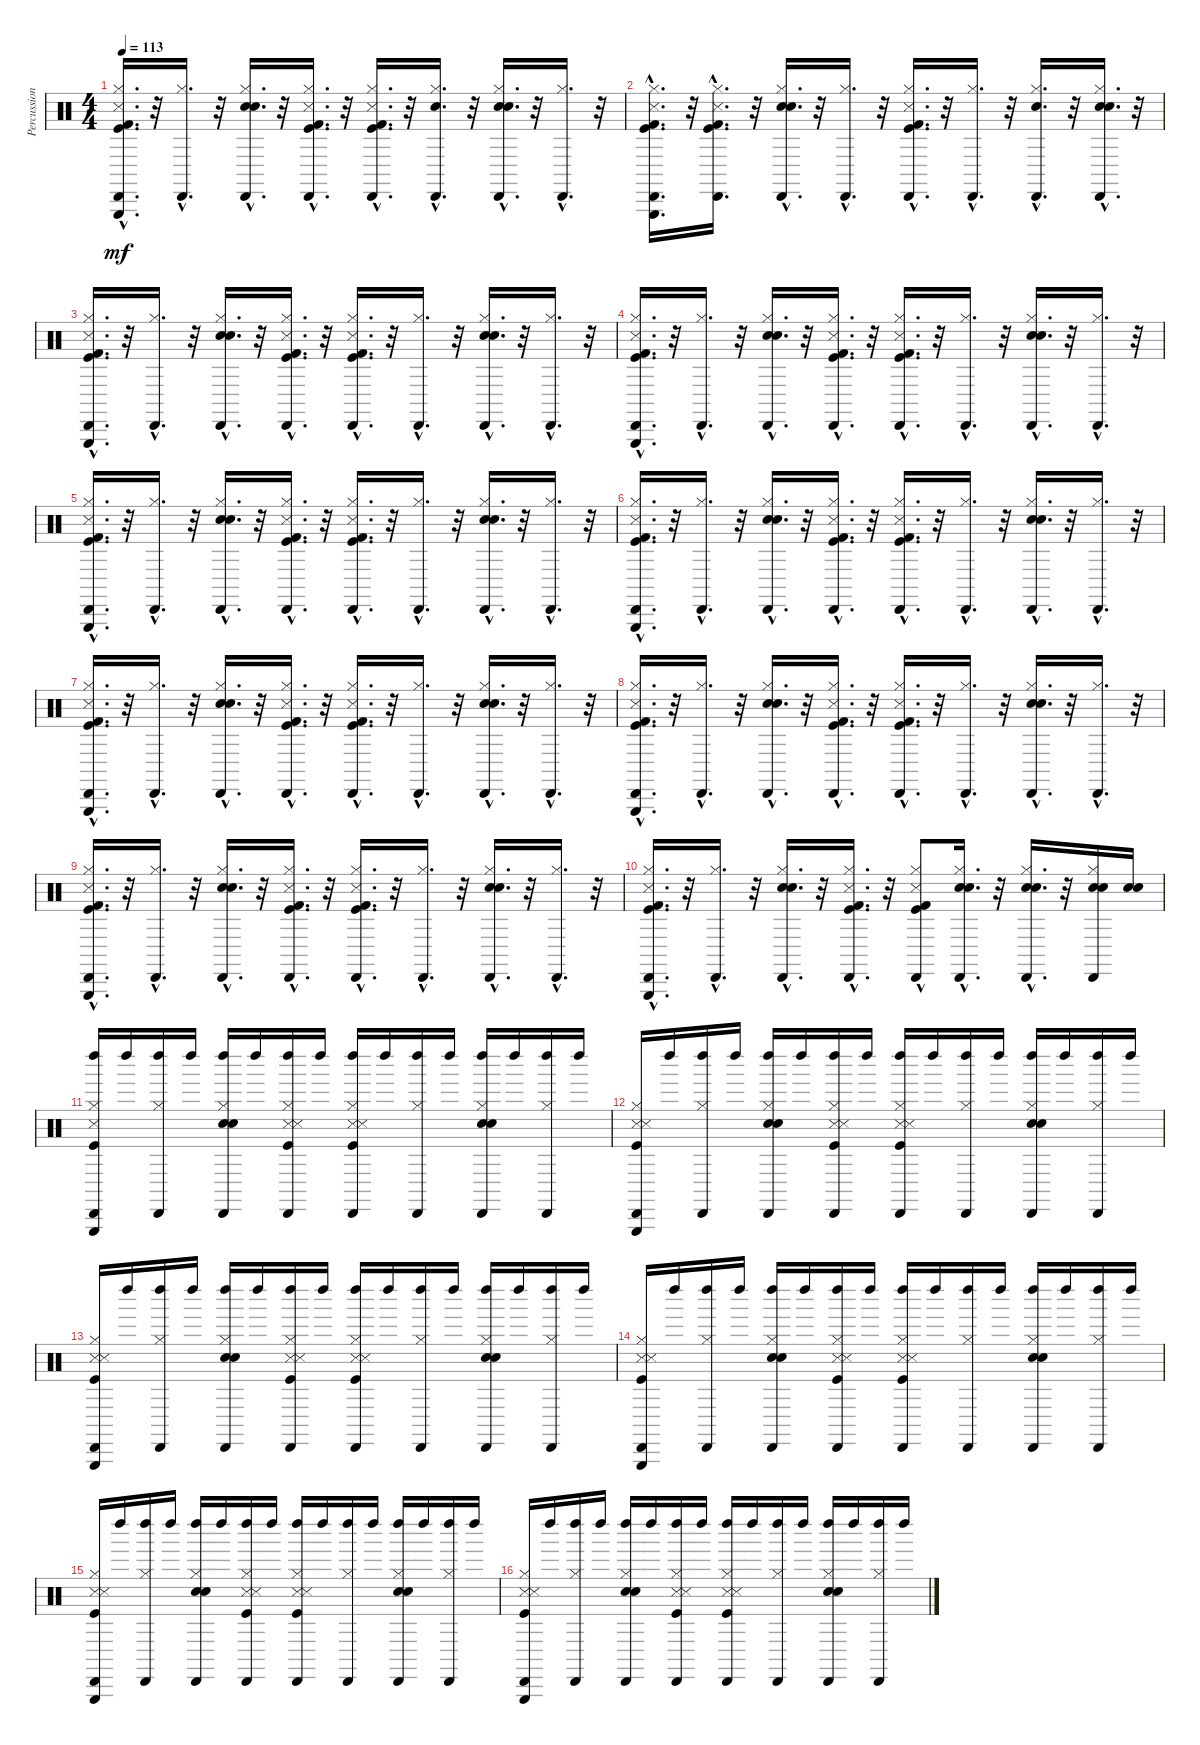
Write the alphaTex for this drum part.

\track ("Percussion" "Percussion") {instrument percussion}
\staff {score}
\articulation defaults
\ts (4 4)
\tempo 113
\clef neutral
\ks c
("Kick (hit) 2"{hac} "Cabasa (hit)"{hac} "Triangle (hit)"{hac} "Metronome (hit)"{hac} "Kick (hit)"{hac} "Hi-Hat (closed)"{hac}).16{d dy mf} r.32 ("Cabasa (hit)"{hac} "Hi-Hat (closed)"{hac}).16{d} r.32 ("Hand Clap (hit)"{hac} "Cabasa (hit)"{hac} "Electric Snare (hit)"{hac} "Hi-Hat (closed)"{hac}).16{d} r.32 ("Kick (hit) 2"{hac} "Cabasa (hit)"{hac} "Kick (hit)"{hac} "Metronome (hit)"{hac} "Hi-Hat (closed)"{hac}).16{d} r.32 ("Kick (hit) 2"{hac} "Cabasa (hit)"{hac} "Metronome (hit)"{hac} "Kick (hit)"{hac} "Hi-Hat (closed)"{hac}).16{d} r.32 ("Snare (hit)"{hac} "Cabasa (hit)"{hac} "Hi-Hat (closed)"{hac}).16{d} r.32 ("Cabasa (hit)"{hac} "Hand Clap (hit)"{hac} "Electric Snare (hit)"{hac} "Hi-Hat (closed)"{hac}).16{d} r.32 ("Cabasa (hit)"{hac} "Hi-Hat (closed)"{hac}).16{d} r.32 |
("Kick (hit) 2"{hac} "Cabasa (hit)"{hac} "Triangle (hit)"{hac} "Metronome (hit)"{hac} "Kick (hit)"{hac} "Hi-Hat (closed)"{hac}).16{d} r.32 ("Metronome (hit)"{hac} "Kick (hit)"{hac} "Kick (hit) 2"{hac} "Cabasa (hit)"{hac} "Hi-Hat (closed)"{hac}).16{d} r.32 ("Hand Clap (hit)"{hac} "Cabasa (hit)"{hac} "Electric Snare (hit)"{hac} "Hi-Hat (closed)"{hac}).16{d} r.32 ("Hi-Hat (closed)"{hac} "Cabasa (hit)"{hac}).16{d} r.32 ("Metronome (hit)"{hac} "Kick (hit)"{hac} "Hi-Hat (closed)"{hac} "Kick (hit) 2"{hac} "Cabasa (hit)"{hac}).16{d} r.32 ("Hi-Hat (closed)"{hac} "Cabasa (hit)"{hac}).16{d} r.32 ("Hand Clap (hit)"{hac} "Cabasa (hit)"{hac} "Hi-Hat (closed)"{hac}).16{d} r.32 ("Hand Clap (hit)"{hac} "Electric Snare (hit)"{hac} "Cabasa (hit)"{hac} "Hi-Hat (closed)"{hac}).16{d} r.32 |
("Kick (hit) 2"{hac} "Cabasa (hit)"{hac} "Triangle (hit)"{hac} "Metronome (hit)"{hac} "Kick (hit)"{hac} "Hi-Hat (closed)"{hac}).16{d} r.32 ("Cabasa (hit)"{hac} "Hi-Hat (closed)"{hac}).16{d} r.32 ("Hand Clap (hit)"{hac} "Cabasa (hit)"{hac} "Electric Snare (hit)"{hac} "Hi-Hat (closed)"{hac}).16{d} r.32 ("Kick (hit) 2"{hac} "Cabasa (hit)"{hac} "Kick (hit)"{hac} "Metronome (hit)"{hac} "Hi-Hat (closed)"{hac}).16{d} r.32 ("Kick (hit) 2"{hac} "Cabasa (hit)"{hac} "Metronome (hit)"{hac} "Kick (hit)"{hac} "Hi-Hat (closed)"{hac}).16{d} r.32 ("Cabasa (hit)"{hac} "Hi-Hat (closed)"{hac}).16{d} r.32 ("Cabasa (hit)"{hac} "Hand Clap (hit)"{hac} "Electric Snare (hit)"{hac} "Hi-Hat (closed)"{hac}).16{d} r.32 ("Cabasa (hit)"{hac} "Hi-Hat (closed)"{hac}).16{d} r.32 |
("Kick (hit) 2"{hac} "Cabasa (hit)"{hac} "Triangle (hit)"{hac} "Metronome (hit)"{hac} "Kick (hit)"{hac} "Hi-Hat (closed)"{hac}).16{d} r.32 ("Cabasa (hit)"{hac} "Hi-Hat (closed)"{hac}).16{d} r.32 ("Electric Snare (hit)"{hac} "Cabasa (hit)"{hac} "Hand Clap (hit)"{hac} "Hi-Hat (closed)"{hac}).16{d} r.32 ("Kick (hit) 2"{hac} "Kick (hit)"{hac} "Cabasa (hit)"{hac} "Metronome (hit)"{hac} "Hi-Hat (closed)"{hac}).16{d} r.32 ("Cabasa (hit)"{hac} "Metronome (hit)"{hac} "Kick (hit) 2"{hac} "Kick (hit)"{hac} "Hi-Hat (closed)"{hac}).16{d} r.32 ("Hi-Hat (closed)"{hac} "Cabasa (hit)"{hac}).16{d} r.32 ("Cabasa (hit)"{hac} "Hand Clap (hit)"{hac} "Electric Snare (hit)"{hac} "Hi-Hat (closed)"{hac}).16{d} r.32 ("Cabasa (hit)"{hac} "Hi-Hat (closed)"{hac}).16{d} r.32 |
("Kick (hit) 2"{hac} "Cabasa (hit)"{hac} "Triangle (hit)"{hac} "Metronome (hit)"{hac} "Kick (hit)"{hac} "Hi-Hat (closed)"{hac}).16{d} r.32 ("Cabasa (hit)"{hac} "Hi-Hat (closed)"{hac}).16{d} r.32 ("Hand Clap (hit)"{hac} "Cabasa (hit)"{hac} "Electric Snare (hit)"{hac} "Hi-Hat (closed)"{hac}).16{d} r.32 ("Kick (hit) 2"{hac} "Cabasa (hit)"{hac} "Kick (hit)"{hac} "Metronome (hit)"{hac} "Hi-Hat (closed)"{hac}).16{d} r.32 ("Kick (hit) 2"{hac} "Cabasa (hit)"{hac} "Metronome (hit)"{hac} "Kick (hit)"{hac} "Hi-Hat (closed)"{hac}).16{d} r.32 ("Cabasa (hit)"{hac} "Hi-Hat (closed)"{hac}).16{d} r.32 ("Cabasa (hit)"{hac} "Hand Clap (hit)"{hac} "Electric Snare (hit)"{hac} "Hi-Hat (closed)"{hac}).16{d} r.32 ("Cabasa (hit)"{hac} "Hi-Hat (closed)"{hac}).16{d} r.32 |
("Kick (hit) 2"{hac} "Cabasa (hit)"{hac} "Triangle (hit)"{hac} "Metronome (hit)"{hac} "Kick (hit)"{hac} "Hi-Hat (closed)"{hac}).16{d} r.32 ("Cabasa (hit)"{hac} "Hi-Hat (closed)"{hac}).16{d} r.32 ("Hand Clap (hit)"{hac} "Cabasa (hit)"{hac} "Electric Snare (hit)"{hac} "Hi-Hat (closed)"{hac}).16{d} r.32 ("Kick (hit) 2"{hac} "Cabasa (hit)"{hac} "Kick (hit)"{hac} "Metronome (hit)"{hac} "Hi-Hat (closed)"{hac}).16{d} r.32 ("Kick (hit) 2"{hac} "Cabasa (hit)"{hac} "Metronome (hit)"{hac} "Kick (hit)"{hac} "Hi-Hat (closed)"{hac}).16{d} r.32 ("Cabasa (hit)"{hac} "Hi-Hat (closed)"{hac}).16{d} r.32 ("Cabasa (hit)"{hac} "Hand Clap (hit)"{hac} "Electric Snare (hit)"{hac} "Hi-Hat (closed)"{hac}).16{d} r.32 ("Cabasa (hit)"{hac} "Hi-Hat (closed)"{hac}).16{d} r.32 |
("Kick (hit) 2"{hac} "Cabasa (hit)"{hac} "Triangle (hit)"{hac} "Metronome (hit)"{hac} "Kick (hit)"{hac} "Hi-Hat (closed)"{hac}).16{d} r.32 ("Cabasa (hit)"{hac} "Hi-Hat (closed)"{hac}).16{d} r.32 ("Hand Clap (hit)"{hac} "Cabasa (hit)"{hac} "Electric Snare (hit)"{hac} "Hi-Hat (closed)"{hac}).16{d} r.32 ("Kick (hit) 2"{hac} "Cabasa (hit)"{hac} "Kick (hit)"{hac} "Metronome (hit)"{hac} "Hi-Hat (closed)"{hac}).16{d} r.32 ("Kick (hit) 2"{hac} "Cabasa (hit)"{hac} "Metronome (hit)"{hac} "Kick (hit)"{hac} "Hi-Hat (closed)"{hac}).16{d} r.32 ("Cabasa (hit)"{hac} "Hi-Hat (closed)"{hac}).16{d} r.32 ("Cabasa (hit)"{hac} "Hand Clap (hit)"{hac} "Electric Snare (hit)"{hac} "Hi-Hat (closed)"{hac}).16{d} r.32 ("Cabasa (hit)"{hac} "Hi-Hat (closed)"{hac}).16{d} r.32 |
("Kick (hit) 2"{hac} "Cabasa (hit)"{hac} "Triangle (hit)"{hac} "Metronome (hit)"{hac} "Kick (hit)"{hac} "Hi-Hat (closed)"{hac}).16{d} r.32 ("Cabasa (hit)"{hac} "Hi-Hat (closed)"{hac}).16{d} r.32 ("Hand Clap (hit)"{hac} "Cabasa (hit)"{hac} "Electric Snare (hit)"{hac} "Hi-Hat (closed)"{hac}).16{d} r.32 ("Kick (hit) 2"{hac} "Cabasa (hit)"{hac} "Kick (hit)"{hac} "Metronome (hit)"{hac} "Hi-Hat (closed)"{hac}).16{d} r.32 ("Kick (hit) 2"{hac} "Cabasa (hit)"{hac} "Metronome (hit)"{hac} "Kick (hit)"{hac} "Hi-Hat (closed)"{hac}).16{d} r.32 ("Cabasa (hit)"{hac} "Hi-Hat (closed)"{hac}).16{d} r.32 ("Cabasa (hit)"{hac} "Hand Clap (hit)"{hac} "Electric Snare (hit)"{hac} "Hi-Hat (closed)"{hac}).16{d} r.32 ("Cabasa (hit)"{hac} "Hi-Hat (closed)"{hac}).16{d} r.32 |
("Kick (hit) 2"{hac} "Cabasa (hit)"{hac} "Triangle (hit)"{hac} "Metronome (hit)"{hac} "Kick (hit)"{hac} "Hi-Hat (closed)"{hac}).16{d} r.32 ("Cabasa (hit)"{hac} "Hi-Hat (closed)"{hac}).16{d} r.32 ("Hand Clap (hit)"{hac} "Cabasa (hit)"{hac} "Electric Snare (hit)"{hac} "Hi-Hat (closed)"{hac}).16{d} r.32 ("Kick (hit) 2"{hac} "Cabasa (hit)"{hac} "Kick (hit)"{hac} "Metronome (hit)"{hac} "Hi-Hat (closed)"{hac}).16{d} r.32 ("Kick (hit) 2"{hac} "Cabasa (hit)"{hac} "Metronome (hit)"{hac} "Kick (hit)"{hac} "Hi-Hat (closed)"{hac}).16{d} r.32 ("Cabasa (hit)"{hac} "Hi-Hat (closed)"{hac}).16{d} r.32 ("Cabasa (hit)"{hac} "Hand Clap (hit)"{hac} "Electric Snare (hit)"{hac} "Hi-Hat (closed)"{hac}).16{d} r.32 ("Cabasa (hit)"{hac} "Hi-Hat (closed)"{hac}).16{d} r.32 |
("Kick (hit) 2"{hac} "Cabasa (hit)"{hac} "Triangle (hit)"{hac} "Metronome (hit)"{hac} "Kick (hit)"{hac} "Hi-Hat (closed)"{hac}).16{d} r.32 ("Cabasa (hit)"{hac} "Hi-Hat (closed)"{hac}).16{d} r.32 ("Hand Clap (hit)"{hac} "Cabasa (hit)"{hac} "Electric Snare (hit)"{hac} "Hi-Hat (closed)"{hac}).16{d} r.32 ("Kick (hit) 2"{hac} "Cabasa (hit)"{hac} "Kick (hit)"{hac} "Metronome (hit)"{hac} "Hi-Hat (closed)"{hac}).16{d} r.32 ("Kick (hit) 2"{hac} "Cabasa (hit)"{hac} "Metronome (hit)" "Kick (hit)"{hac} "Hi-Hat (closed)"{hac}).8 ("Cabasa (hit)"{hac} "Hi-Hat (closed)"{hac} "Electric Snare (hit)"{hac} "Hand Clap (hit)"{hac}).16{d} r.32 ("Cabasa (hit)"{hac} "Hand Clap (hit)"{hac} "Electric Snare (hit)"{hac} "Hi-Hat (closed)"{hac}).16{d} r.32 ("Electric Snare (hit)" "Hand Clap (hit)" "Hi-Hat (closed)" "Cabasa (hit)").16 ("Electric Snare (hit)" "Hand Clap (hit)").16 |
("Left Maraca (hit)" "Cabasa (hit)" "Triangle (hit)" "Hi-Hat (closed)" "Snare (side stick) 3" "Kick (hit)").16 "Left Maraca (hit)".16 ("Left Maraca (hit)" "Cabasa (hit)" "Hi-Hat (closed)").16 "Left Maraca (hit)".16 ("Left Maraca (hit)" "Cabasa (hit)" "Hi-Hat (closed)" "Electric Snare (hit)" "Hand Clap (hit)").16 "Left Maraca (hit)".16 ("Left Maraca (hit)" "Cabasa (hit)" "Hi-Hat (closed)" "Metronome (hit)" "Kick (hit)" "Snare (side stick) 3").16 "Left Maraca (hit)".16 ("Left Maraca (hit)" "Cabasa (hit)" "Hi-Hat (closed)" "Snare (side stick) 3" "Kick (hit)" "Metronome (hit)").16 "Left Maraca (hit)".16 ("Left Maraca (hit)" "Cabasa (hit)" "Hi-Hat (closed)").16 "Left Maraca (hit)".16 ("Left Maraca (hit)" "Cabasa (hit)" "Hi-Hat (closed)" "Electric Snare (hit)" "Hand Clap (hit)").16 "Left Maraca (hit)".16 ("Left Maraca (hit)" "Cabasa (hit)" "Hi-Hat (closed)").16 "Left Maraca (hit)".16 |
("Metronome (hit)" "Kick (hit)" "Snare (side stick) 3" "Hi-Hat (closed)" "Triangle (hit)" "Cabasa (hit)").16 "Left Maraca (hit)".16 ("Hi-Hat (closed)" "Cabasa (hit)" "Left Maraca (hit)").16 "Left Maraca (hit)".16 ("Hand Clap (hit)" "Electric Snare (hit)" "Hi-Hat (closed)" "Cabasa (hit)" "Left Maraca (hit)").16 "Left Maraca (hit)".16 ("Metronome (hit)" "Snare (side stick) 3" "Kick (hit)" "Hi-Hat (closed)" "Cabasa (hit)" "Left Maraca (hit)").16 "Left Maraca (hit)".16 ("Metronome (hit)" "Kick (hit)" "Snare (side stick) 3" "Hi-Hat (closed)" "Cabasa (hit)" "Left Maraca (hit)").16 "Left Maraca (hit)".16 ("Hi-Hat (closed)" "Cabasa (hit)" "Left Maraca (hit)").16 "Left Maraca (hit)".16 ("Hand Clap (hit)" "Electric Snare (hit)" "Hi-Hat (closed)" "Cabasa (hit)" "Left Maraca (hit)").16 "Left Maraca (hit)".16 ("Hi-Hat (closed)" "Cabasa (hit)" "Left Maraca (hit)").16 "Left Maraca (hit)".16 |
("Metronome (hit)" "Kick (hit)" "Snare (side stick) 3" "Hi-Hat (closed)" "Triangle (hit)" "Cabasa (hit)").16 "Left Maraca (hit)".16 ("Hi-Hat (closed)" "Cabasa (hit)" "Left Maraca (hit)").16 "Left Maraca (hit)".16 ("Hand Clap (hit)" "Electric Snare (hit)" "Hi-Hat (closed)" "Cabasa (hit)" "Left Maraca (hit)").16 "Left Maraca (hit)".16 ("Snare (side stick) 3" "Kick (hit)" "Metronome (hit)" "Hi-Hat (closed)" "Cabasa (hit)" "Left Maraca (hit)").16 "Left Maraca (hit)".16 ("Metronome (hit)" "Kick (hit)" "Snare (side stick) 3" "Hi-Hat (closed)" "Cabasa (hit)" "Left Maraca (hit)").16 "Left Maraca (hit)".16 ("Hi-Hat (closed)" "Cabasa (hit)" "Left Maraca (hit)").16 "Left Maraca (hit)".16 ("Hand Clap (hit)" "Electric Snare (hit)" "Hi-Hat (closed)" "Cabasa (hit)" "Left Maraca (hit)").16 "Left Maraca (hit)".16 ("Hi-Hat (closed)" "Cabasa (hit)" "Left Maraca (hit)").16 "Left Maraca (hit)".16 |
("Metronome (hit)" "Kick (hit)" "Snare (side stick) 3" "Hi-Hat (closed)" "Triangle (hit)" "Cabasa (hit)").16 "Left Maraca (hit)".16 ("Hi-Hat (closed)" "Cabasa (hit)" "Left Maraca (hit)").16 "Left Maraca (hit)".16 ("Hand Clap (hit)" "Electric Snare (hit)" "Hi-Hat (closed)" "Cabasa (hit)" "Left Maraca (hit)").16 "Left Maraca (hit)".16 ("Snare (side stick) 3" "Kick (hit)" "Metronome (hit)" "Hi-Hat (closed)" "Cabasa (hit)" "Left Maraca (hit)").16 "Left Maraca (hit)".16 ("Metronome (hit)" "Kick (hit)" "Snare (side stick) 3" "Hi-Hat (closed)" "Cabasa (hit)" "Left Maraca (hit)").16 "Left Maraca (hit)".16 ("Hi-Hat (closed)" "Cabasa (hit)" "Left Maraca (hit)").16 "Left Maraca (hit)".16 ("Hand Clap (hit)" "Electric Snare (hit)" "Hi-Hat (closed)" "Cabasa (hit)" "Left Maraca (hit)").16 "Left Maraca (hit)".16 ("Hi-Hat (closed)" "Cabasa (hit)" "Left Maraca (hit)").16 "Left Maraca (hit)".16 |
("Metronome (hit)" "Kick (hit)" "Snare (side stick) 3" "Hi-Hat (closed)" "Triangle (hit)" "Cabasa (hit)").16 "Left Maraca (hit)".16 ("Hi-Hat (closed)" "Cabasa (hit)" "Left Maraca (hit)").16 "Left Maraca (hit)".16 ("Hand Clap (hit)" "Electric Snare (hit)" "Hi-Hat (closed)" "Cabasa (hit)" "Left Maraca (hit)").16 "Left Maraca (hit)".16 ("Snare (side stick) 3" "Kick (hit)" "Metronome (hit)" "Hi-Hat (closed)" "Cabasa (hit)" "Left Maraca (hit)").16 "Left Maraca (hit)".16 ("Metronome (hit)" "Kick (hit)" "Snare (side stick) 3" "Hi-Hat (closed)" "Cabasa (hit)" "Left Maraca (hit)").16 "Left Maraca (hit)".16 ("Hi-Hat (closed)" "Cabasa (hit)" "Left Maraca (hit)").16 "Left Maraca (hit)".16 ("Hand Clap (hit)" "Electric Snare (hit)" "Hi-Hat (closed)" "Cabasa (hit)" "Left Maraca (hit)").16 "Left Maraca (hit)".16 ("Hi-Hat (closed)" "Cabasa (hit)" "Left Maraca (hit)").16 "Left Maraca (hit)".16 |
("Metronome (hit)" "Kick (hit)" "Snare (side stick) 3" "Hi-Hat (closed)" "Triangle (hit)" "Cabasa (hit)").16 "Left Maraca (hit)".16 ("Hi-Hat (closed)" "Cabasa (hit)" "Left Maraca (hit)").16 "Left Maraca (hit)".16 ("Hand Clap (hit)" "Electric Snare (hit)" "Hi-Hat (closed)" "Cabasa (hit)" "Left Maraca (hit)").16 "Left Maraca (hit)".16 ("Snare (side stick) 3" "Kick (hit)" "Metronome (hit)" "Hi-Hat (closed)" "Cabasa (hit)" "Left Maraca (hit)").16 "Left Maraca (hit)".16 ("Metronome (hit)" "Kick (hit)" "Snare (side stick) 3" "Hi-Hat (closed)" "Cabasa (hit)" "Left Maraca (hit)").16 "Left Maraca (hit)".16 ("Hi-Hat (closed)" "Cabasa (hit)" "Left Maraca (hit)").16 "Left Maraca (hit)".16 ("Hand Clap (hit)" "Electric Snare (hit)" "Hi-Hat (closed)" "Cabasa (hit)" "Left Maraca (hit)").16 "Left Maraca (hit)".16 ("Hi-Hat (closed)" "Cabasa (hit)" "Left Maraca (hit)").16 "Left Maraca (hit)".16
